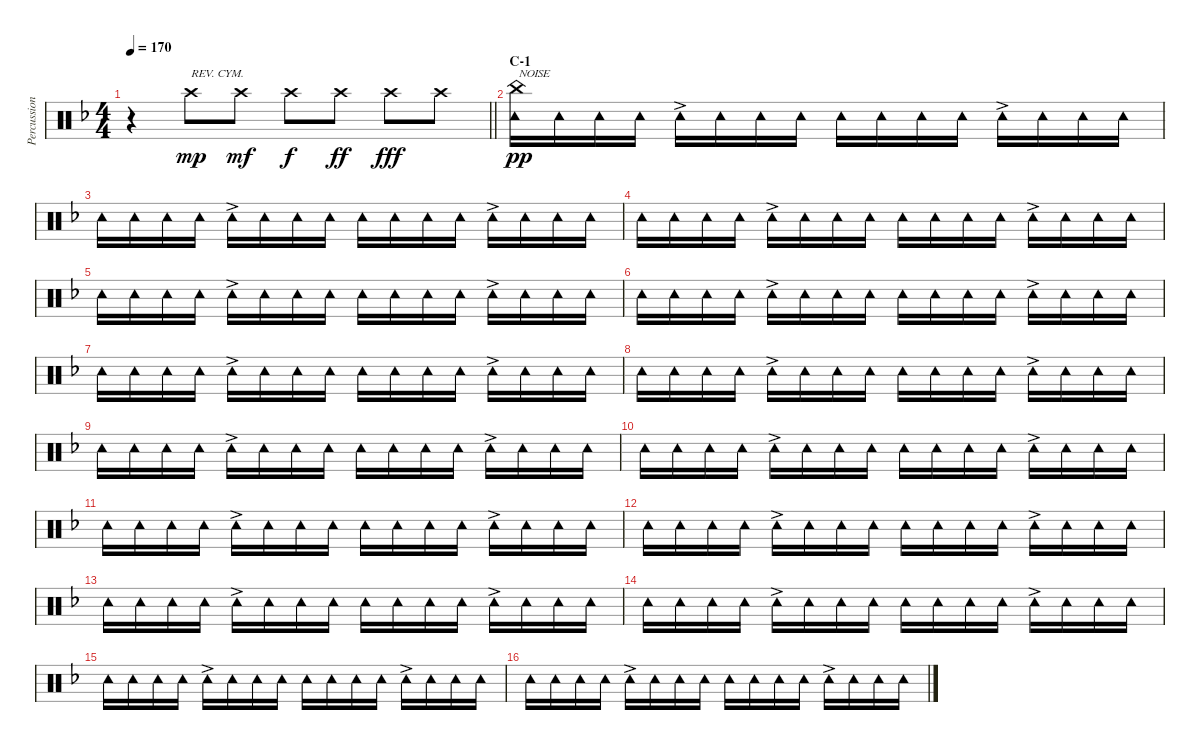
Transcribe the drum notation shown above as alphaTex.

\track ("Percussion (Tainaka Ritsu)" "Percussion") {instrument percussion}
\staff {score}
\articulation defaults
\ts (4 4)
\tempo 170
\clef neutral
\barLineRight lightlight
\ks f
r.4{dy fff volume 0} "Crash high (hit)".8{txt "REV. CYM." dy mp volume 13} "Crash high (hit)".8{dy mf} "Crash high (hit)".8{dy f} "Crash high (hit)".8{dy ff} "Crash high (hit)".8{dy fff} "Crash high (hit)".8 |
\section ("" "C-1")
("China (hit)" "Tambourine (hit)").16{txt "NOISE" dy pp} "Tambourine (hit)".16 "Tambourine (hit)".16 "Tambourine (hit)".16 "Tambourine (hit)"{ac}.16 "Tambourine (hit)".16 "Tambourine (hit)".16 "Tambourine (hit)".16 "Tambourine (hit)".16 "Tambourine (hit)".16 "Tambourine (hit)".16 "Tambourine (hit)".16 "Tambourine (hit)"{ac}.16 "Tambourine (hit)".16 "Tambourine (hit)".16 "Tambourine (hit)".16 |
"Tambourine (hit)".16 "Tambourine (hit)".16 "Tambourine (hit)".16 "Tambourine (hit)".16 "Tambourine (hit)"{ac}.16 "Tambourine (hit)".16 "Tambourine (hit)".16 "Tambourine (hit)".16 "Tambourine (hit)".16 "Tambourine (hit)".16 "Tambourine (hit)".16 "Tambourine (hit)".16 "Tambourine (hit)"{ac}.16 "Tambourine (hit)".16 "Tambourine (hit)".16 "Tambourine (hit)".16 |
"Tambourine (hit)".16 "Tambourine (hit)".16 "Tambourine (hit)".16 "Tambourine (hit)".16 "Tambourine (hit)"{ac}.16 "Tambourine (hit)".16 "Tambourine (hit)".16 "Tambourine (hit)".16 "Tambourine (hit)".16 "Tambourine (hit)".16 "Tambourine (hit)".16 "Tambourine (hit)".16 "Tambourine (hit)"{ac}.16 "Tambourine (hit)".16 "Tambourine (hit)".16 "Tambourine (hit)".16 |
"Tambourine (hit)".16 "Tambourine (hit)".16 "Tambourine (hit)".16 "Tambourine (hit)".16 "Tambourine (hit)"{ac}.16 "Tambourine (hit)".16 "Tambourine (hit)".16 "Tambourine (hit)".16 "Tambourine (hit)".16 "Tambourine (hit)".16 "Tambourine (hit)".16 "Tambourine (hit)".16 "Tambourine (hit)"{ac}.16 "Tambourine (hit)".16 "Tambourine (hit)".16 "Tambourine (hit)".16 |
"Tambourine (hit)".16 "Tambourine (hit)".16 "Tambourine (hit)".16 "Tambourine (hit)".16 "Tambourine (hit)"{ac}.16 "Tambourine (hit)".16 "Tambourine (hit)".16 "Tambourine (hit)".16 "Tambourine (hit)".16 "Tambourine (hit)".16 "Tambourine (hit)".16 "Tambourine (hit)".16 "Tambourine (hit)"{ac}.16 "Tambourine (hit)".16 "Tambourine (hit)".16 "Tambourine (hit)".16 |
"Tambourine (hit)".16 "Tambourine (hit)".16 "Tambourine (hit)".16 "Tambourine (hit)".16 "Tambourine (hit)"{ac}.16 "Tambourine (hit)".16 "Tambourine (hit)".16 "Tambourine (hit)".16 "Tambourine (hit)".16 "Tambourine (hit)".16 "Tambourine (hit)".16 "Tambourine (hit)".16 "Tambourine (hit)"{ac}.16 "Tambourine (hit)".16 "Tambourine (hit)".16 "Tambourine (hit)".16 |
"Tambourine (hit)".16 "Tambourine (hit)".16 "Tambourine (hit)".16 "Tambourine (hit)".16 "Tambourine (hit)"{ac}.16 "Tambourine (hit)".16 "Tambourine (hit)".16 "Tambourine (hit)".16 "Tambourine (hit)".16 "Tambourine (hit)".16 "Tambourine (hit)".16 "Tambourine (hit)".16 "Tambourine (hit)"{ac}.16 "Tambourine (hit)".16 "Tambourine (hit)".16 "Tambourine (hit)".16 |
"Tambourine (hit)".16 "Tambourine (hit)".16 "Tambourine (hit)".16 "Tambourine (hit)".16 "Tambourine (hit)"{ac}.16 "Tambourine (hit)".16 "Tambourine (hit)".16 "Tambourine (hit)".16 "Tambourine (hit)".16 "Tambourine (hit)".16 "Tambourine (hit)".16 "Tambourine (hit)".16 "Tambourine (hit)"{ac}.16 "Tambourine (hit)".16 "Tambourine (hit)".16 "Tambourine (hit)".16 |
"Tambourine (hit)".16 "Tambourine (hit)".16 "Tambourine (hit)".16 "Tambourine (hit)".16 "Tambourine (hit)"{ac}.16 "Tambourine (hit)".16 "Tambourine (hit)".16 "Tambourine (hit)".16 "Tambourine (hit)".16 "Tambourine (hit)".16 "Tambourine (hit)".16 "Tambourine (hit)".16 "Tambourine (hit)"{ac}.16 "Tambourine (hit)".16 "Tambourine (hit)".16 "Tambourine (hit)".16 |
"Tambourine (hit)".16 "Tambourine (hit)".16 "Tambourine (hit)".16 "Tambourine (hit)".16 "Tambourine (hit)"{ac}.16 "Tambourine (hit)".16 "Tambourine (hit)".16 "Tambourine (hit)".16 "Tambourine (hit)".16 "Tambourine (hit)".16 "Tambourine (hit)".16 "Tambourine (hit)".16 "Tambourine (hit)"{ac}.16 "Tambourine (hit)".16 "Tambourine (hit)".16 "Tambourine (hit)".16 |
"Tambourine (hit)".16 "Tambourine (hit)".16 "Tambourine (hit)".16 "Tambourine (hit)".16 "Tambourine (hit)"{ac}.16 "Tambourine (hit)".16 "Tambourine (hit)".16 "Tambourine (hit)".16 "Tambourine (hit)".16 "Tambourine (hit)".16 "Tambourine (hit)".16 "Tambourine (hit)".16 "Tambourine (hit)"{ac}.16 "Tambourine (hit)".16 "Tambourine (hit)".16 "Tambourine (hit)".16 |
"Tambourine (hit)".16 "Tambourine (hit)".16 "Tambourine (hit)".16 "Tambourine (hit)".16 "Tambourine (hit)"{ac}.16 "Tambourine (hit)".16 "Tambourine (hit)".16 "Tambourine (hit)".16 "Tambourine (hit)".16 "Tambourine (hit)".16 "Tambourine (hit)".16 "Tambourine (hit)".16 "Tambourine (hit)"{ac}.16 "Tambourine (hit)".16 "Tambourine (hit)".16 "Tambourine (hit)".16 |
"Tambourine (hit)".16 "Tambourine (hit)".16 "Tambourine (hit)".16 "Tambourine (hit)".16 "Tambourine (hit)"{ac}.16 "Tambourine (hit)".16 "Tambourine (hit)".16 "Tambourine (hit)".16 "Tambourine (hit)".16 "Tambourine (hit)".16 "Tambourine (hit)".16 "Tambourine (hit)".16 "Tambourine (hit)"{ac}.16 "Tambourine (hit)".16 "Tambourine (hit)".16 "Tambourine (hit)".16 |
"Tambourine (hit)".16 "Tambourine (hit)".16 "Tambourine (hit)".16 "Tambourine (hit)".16 "Tambourine (hit)"{ac}.16 "Tambourine (hit)".16 "Tambourine (hit)".16 "Tambourine (hit)".16 "Tambourine (hit)".16 "Tambourine (hit)".16 "Tambourine (hit)".16 "Tambourine (hit)".16 "Tambourine (hit)"{ac}.16 "Tambourine (hit)".16 "Tambourine (hit)".16 "Tambourine (hit)".16 |
"Tambourine (hit)".16 "Tambourine (hit)".16 "Tambourine (hit)".16 "Tambourine (hit)".16 "Tambourine (hit)"{ac}.16 "Tambourine (hit)".16 "Tambourine (hit)".16 "Tambourine (hit)".16 "Tambourine (hit)".16 "Tambourine (hit)".16 "Tambourine (hit)".16 "Tambourine (hit)".16 "Tambourine (hit)"{ac}.16 "Tambourine (hit)".16 "Tambourine (hit)".16 "Tambourine (hit)".16
